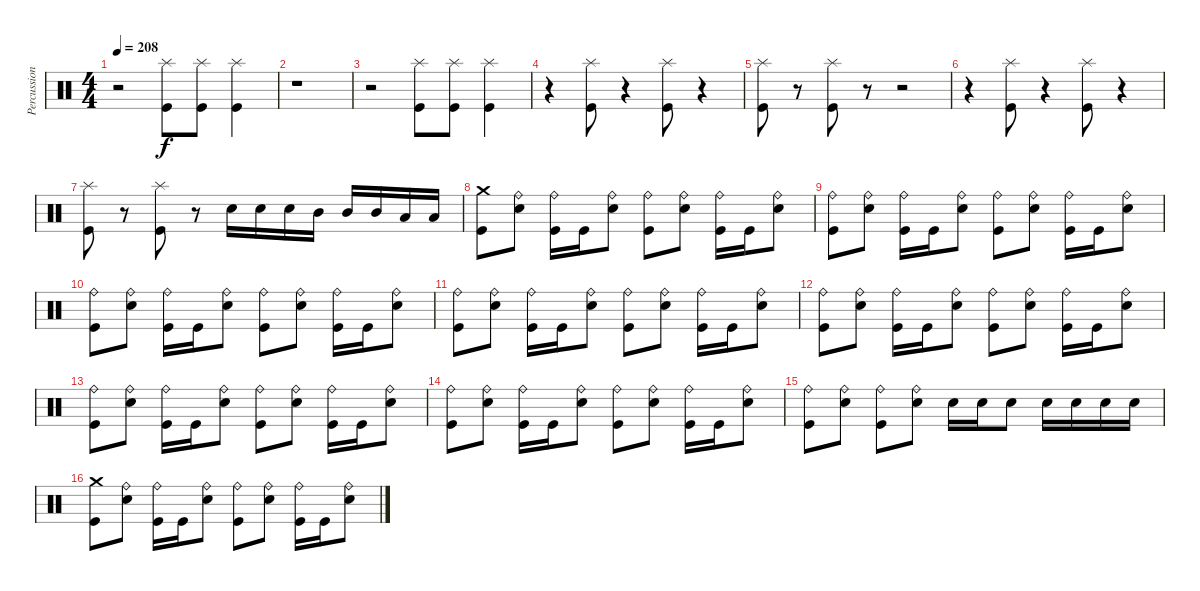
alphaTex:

\track ("Percussions" "Percussion") {instrument percussion}
\staff {score}
\articulation defaults
\ts (4 4)
\tempo 208
\clef neutral
\ks c
r.2{dy f} ("Kick (hit)" "Splash (hit)").8 ("Kick (hit)" "Splash (hit)").8 ("Kick (hit)" "Splash (hit)").4 |
r.1 |
r.2 ("Kick (hit)" "Splash (hit)").8 ("Kick (hit)" "Splash (hit)").8 ("Kick (hit)" "Splash (hit)").4 |
r.4 ("Kick (hit)" "Splash (hit)").8 r.4 ("Kick (hit)" "Splash (hit)").8 r.4 |
("Kick (hit)" "Splash (hit)").8 r.8 ("Kick (hit)" "Splash (hit)").8 r.8 r.2 |
r.4 ("Kick (hit)" "Splash (hit)").8 r.4 ("Kick (hit)" "Splash (hit)").8 r.4 |
("Kick (hit)" "Splash (hit)").8 r.8 ("Kick (hit)" "Splash (hit)").8 r.8 "Electric Snare (hit)".16 "Electric Snare (hit)".16 "Electric Snare (hit)".16 "Mid Tom (hit)".16 "Mid Tom (hit)".16 "Mid Tom (hit)".16 "Low Tom (hit)".16 "Low Tom (hit)".16 |
("Kick (hit)" "Crash medium (hit)").8 ("Electric Snare (hit)" "Ride (bell)").8 ("Kick (hit)" "Ride (bell)").16 "Kick (hit)".16 ("Electric Snare (hit)" "Ride (bell)").8 ("Kick (hit)" "Ride (bell)").8 ("Electric Snare (hit)" "Ride (bell)").8 ("Kick (hit)" "Ride (bell)").16 "Kick (hit)".16 ("Electric Snare (hit)" "Ride (bell)").8 |
("Kick (hit)" "Ride (bell)").8 ("Electric Snare (hit)" "Ride (bell)").8 ("Kick (hit)" "Ride (bell)").16 "Kick (hit)".16 ("Electric Snare (hit)" "Ride (bell)").8 ("Kick (hit)" "Ride (bell)").8 ("Electric Snare (hit)" "Ride (bell)").8 ("Kick (hit)" "Ride (bell)").16 "Kick (hit)".16 ("Electric Snare (hit)" "Ride (bell)").8 |
("Kick (hit)" "Ride (bell)").8 ("Electric Snare (hit)" "Ride (bell)").8 ("Kick (hit)" "Ride (bell)").16 "Kick (hit)".16 ("Electric Snare (hit)" "Ride (bell)").8 ("Kick (hit)" "Ride (bell)").8 ("Electric Snare (hit)" "Ride (bell)").8 ("Kick (hit)" "Ride (bell)").16 "Kick (hit)".16 ("Electric Snare (hit)" "Ride (bell)").8 |
("Kick (hit)" "Ride (bell)").8 ("Electric Snare (hit)" "Ride (bell)").8 ("Kick (hit)" "Ride (bell)").16 "Kick (hit)".16 ("Electric Snare (hit)" "Ride (bell)").8 ("Kick (hit)" "Ride (bell)").8 ("Electric Snare (hit)" "Ride (bell)").8 ("Kick (hit)" "Ride (bell)").16 "Kick (hit)".16 ("Electric Snare (hit)" "Ride (bell)").8 |
("Kick (hit)" "Ride (bell)").8 ("Electric Snare (hit)" "Ride (bell)").8 ("Kick (hit)" "Ride (bell)").16 "Kick (hit)".16 ("Electric Snare (hit)" "Ride (bell)").8 ("Kick (hit)" "Ride (bell)").8 ("Electric Snare (hit)" "Ride (bell)").8 ("Kick (hit)" "Ride (bell)").16 "Kick (hit)".16 ("Electric Snare (hit)" "Ride (bell)").8 |
("Kick (hit)" "Ride (bell)").8 ("Electric Snare (hit)" "Ride (bell)").8 ("Kick (hit)" "Ride (bell)").16 "Kick (hit)".16 ("Electric Snare (hit)" "Ride (bell)").8 ("Kick (hit)" "Ride (bell)").8 ("Electric Snare (hit)" "Ride (bell)").8 ("Kick (hit)" "Ride (bell)").16 "Kick (hit)".16 ("Electric Snare (hit)" "Ride (bell)").8 |
("Kick (hit)" "Ride (bell)").8 ("Electric Snare (hit)" "Ride (bell)").8 ("Kick (hit)" "Ride (bell)").16 "Kick (hit)".16 ("Electric Snare (hit)" "Ride (bell)").8 ("Kick (hit)" "Ride (bell)").8 ("Electric Snare (hit)" "Ride (bell)").8 ("Kick (hit)" "Ride (bell)").16 "Kick (hit)".16 ("Electric Snare (hit)" "Ride (bell)").8 |
("Kick (hit)" "Ride (bell)").8 ("Electric Snare (hit)" "Ride (bell)").8 ("Kick (hit)" "Ride (bell)").8 ("Electric Snare (hit)" "Ride (bell)").8 "Electric Snare (hit)".16 "Electric Snare (hit)".16 "Electric Snare (hit)".8 "Electric Snare (hit)".16 "Electric Snare (hit)".16 "Electric Snare (hit)".16 "Electric Snare (hit)".16 |
("Kick (hit)" "Crash medium (hit)").8 ("Electric Snare (hit)" "Ride (bell)").8 ("Kick (hit)" "Ride (bell)").16 "Kick (hit)".16 ("Electric Snare (hit)" "Ride (bell)").8 ("Kick (hit)" "Ride (bell)").8 ("Electric Snare (hit)" "Ride (bell)").8 ("Kick (hit)" "Ride (bell)").16 "Kick (hit)".16 ("Electric Snare (hit)" "Ride (bell)").8
